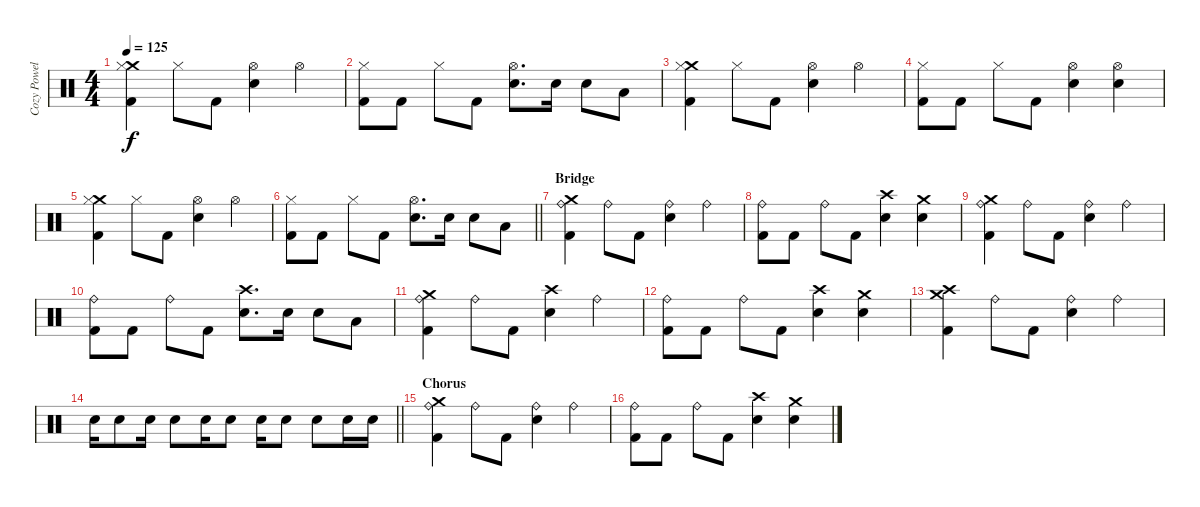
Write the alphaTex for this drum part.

\track ("Cozy Powell " "Cozy Powel") {instrument percussion}
\staff {score}
\articulation defaults
\ts (4 4)
\tempo 125
\clef neutral
\ks c
("Crash medium (hit)" "Hi-Hat (closed)" "Kick (hit) 2").4{dy f} "Hi-Hat (closed)".8 "Kick (hit) 2".8 ("Hi-Hat (open)" "Snare (hit) 2").4 "Hi-Hat (open)".4 |
("Hi-Hat (closed)" "Kick (hit) 2").8 "Kick (hit) 2".8 "Hi-Hat (closed)".8 "Kick (hit) 2".8 ("Hi-Hat (open)" "Snare (hit) 2").8{d} "Snare (hit) 2".16 "Snare (hit) 2".8 "Low Tom (hit)".8 |
("Crash medium (hit)" "Hi-Hat (closed)" "Kick (hit) 2").4 "Hi-Hat (closed)".8 "Kick (hit) 2".8 ("Hi-Hat (open)" "Snare (hit) 2").4 "Hi-Hat (open)".4 |
("Hi-Hat (closed)" "Kick (hit) 2").8 "Kick (hit) 2".8 "Hi-Hat (closed)".8 "Kick (hit) 2".8 ("Hi-Hat (open)" "Snare (hit) 2").4 ("Hi-Hat (open)" "Snare (hit) 2").4 |
("Crash medium (hit)" "Hi-Hat (closed)" "Kick (hit) 2").4 "Hi-Hat (closed)".8 "Kick (hit) 2".8 ("Hi-Hat (open)" "Snare (hit) 2").4 "Hi-Hat (open)".4 |
\barLineRight lightlight
("Hi-Hat (closed)" "Kick (hit) 2").8 "Kick (hit) 2".8 "Hi-Hat (closed)".8 "Kick (hit) 2".8 ("Hi-Hat (open)" "Snare (hit) 2").8{d} "Snare (hit) 2".16 "Snare (hit) 2".8 "Low Tom (hit)".8 |
\section ("" "Bridge")
("Crash medium (hit)" "Ride (bell)" "Kick (hit) 2").4 "Ride (bell)".8 "Kick (hit) 2".8 ("Ride (bell)" "Snare (hit) 2").4 "Ride (bell)".4 |
("Ride (bell)" "Kick (hit) 2").8 "Kick (hit) 2".8 "Ride (bell)".8 "Kick (hit) 2".8 ("Crash high (hit)" "Snare (hit) 2").4 ("Crash medium (hit)" "Snare (hit) 2").4 |
("Crash medium (hit)" "Ride (bell)" "Kick (hit) 2").4 "Ride (bell)".8 "Kick (hit) 2".8 ("Ride (bell)" "Snare (hit) 2").4 "Ride (bell)".4 |
("Ride (bell)" "Kick (hit) 2").8 "Kick (hit) 2".8 "Ride (bell)".8 "Kick (hit) 2".8 ("Crash high (hit)" "Snare (hit) 2").8{d} "Snare (hit) 2".16 "Snare (hit) 2".8 "Low Tom (hit)".8 |
("Crash medium (hit)" "Ride (bell)" "Kick (hit) 2").4 "Ride (bell)".8 "Kick (hit) 2".8 ("Crash high (hit)" "Snare (hit) 2").4 "Ride (bell)".4 |
("Ride (bell)" "Kick (hit) 2").8 "Kick (hit) 2".8 "Ride (bell)".8 "Kick (hit) 2".8 ("Crash high (hit)" "Snare (hit) 2").4 ("Crash medium (hit)" "Snare (hit) 2").4 |
("Crash medium (hit)" "Crash high (hit)" "Kick (hit) 2").4 "Ride (bell)".8 "Kick (hit) 2".8 ("Ride (bell)" "Snare (hit) 2").4 "Ride (bell)".4 |
\barLineRight lightlight "Snare (hit) 2".16 "Snare (hit) 2".8 "Snare (hit) 2".16 "Snare (hit) 2".8 "Snare (hit) 2".16 "Snare (hit) 2".8 "Snare (hit) 2".16 "Snare (hit) 2".8 "Snare (hit) 2".8 "Snare (hit) 2".16 "Snare (hit) 2".16
|
\section ("" "Chorus")
("Crash medium (hit)" "Ride (bell)" "Kick (hit) 2").4 "Ride (bell)".8 "Kick (hit) 2".8 ("Ride (bell)" "Snare (hit) 2").4 "Ride (bell)".4 |
("Ride (bell)" "Kick (hit) 2").8 "Kick (hit) 2".8 "Ride (bell)".8 "Kick (hit) 2".8 ("Crash high (hit)" "Snare (hit) 2").4 ("Crash medium (hit)" "Snare (hit) 2").4
